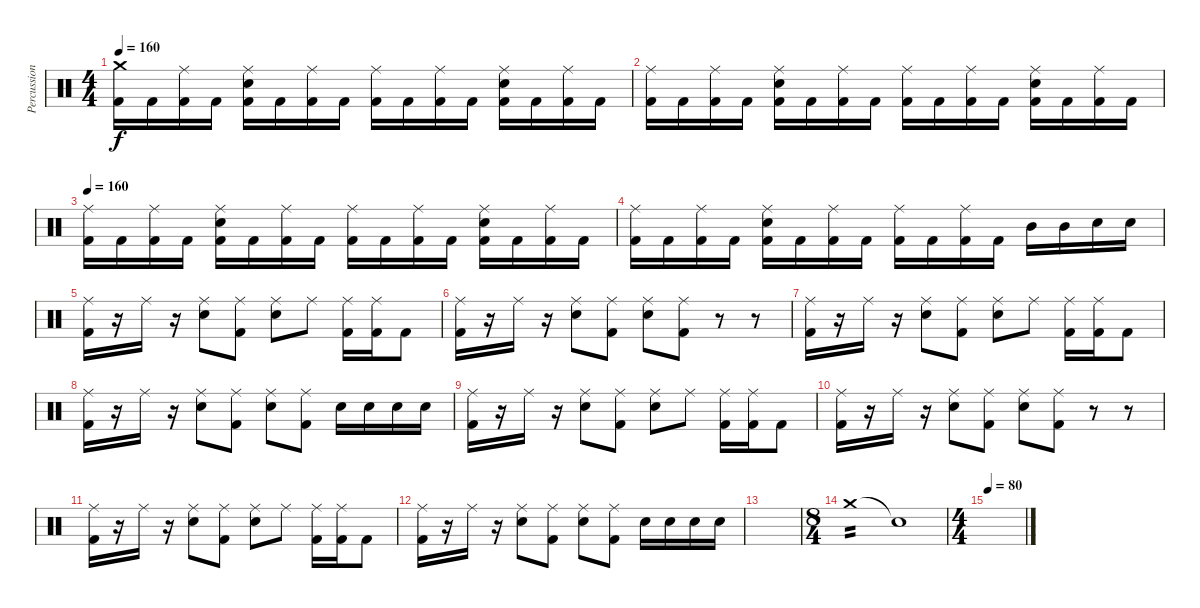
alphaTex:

\track ("Percussions" "Percussion") {instrument percussion}
\staff {score}
\articulation defaults
\ts (4 4)
\tempo 160
\clef neutral
\ks c
("Kick (hit) 2" "Crash medium (hit)").16{dy f} "Kick (hit) 2".16 ("Kick (hit) 2" "Ride (middle)").16 "Kick (hit) 2".16 ("Kick (hit) 2" "Electric Snare (hit)" "Ride (middle)").16 "Kick (hit) 2".16 ("Kick (hit) 2" "Ride (middle)").16 "Kick (hit) 2".16 ("Kick (hit) 2" "Ride (middle)").16 "Kick (hit) 2".16 ("Kick (hit) 2" "Ride (middle)").16 "Kick (hit) 2".16 ("Kick (hit) 2" "Electric Snare (hit)" "Ride (middle)").16 "Kick (hit) 2".16 ("Kick (hit) 2" "Ride (middle)").16 "Kick (hit) 2".16 |
("Kick (hit) 2" "Ride (middle)").16 "Kick (hit) 2".16 ("Kick (hit) 2" "Ride (middle)").16 "Kick (hit) 2".16 ("Kick (hit) 2" "Electric Snare (hit)" "Ride (middle)").16 "Kick (hit) 2".16 ("Kick (hit) 2" "Ride (middle)").16 "Kick (hit) 2".16 ("Kick (hit) 2" "Ride (middle)").16 "Kick (hit) 2".16 ("Kick (hit) 2" "Ride (middle)").16 "Kick (hit) 2".16 ("Kick (hit) 2" "Electric Snare (hit)" "Ride (middle)").16 "Kick (hit) 2".16 ("Kick (hit) 2" "Ride (middle)").16 "Kick (hit) 2".16 |
\tempo 160
("Kick (hit) 2" "Ride (middle)").16 "Kick (hit) 2".16 ("Kick (hit) 2" "Ride (middle)").16 "Kick (hit) 2".16 ("Kick (hit) 2" "Electric Snare (hit)" "Ride (middle)").16 "Kick (hit) 2".16 ("Kick (hit) 2" "Ride (middle)").16 "Kick (hit) 2".16 ("Kick (hit) 2" "Ride (middle)").16 "Kick (hit) 2".16 ("Kick (hit) 2" "Ride (middle)").16 "Kick (hit) 2".16 ("Kick (hit) 2" "Electric Snare (hit)" "Ride (middle)").16 "Kick (hit) 2".16 ("Kick (hit) 2" "Ride (middle)").16 "Kick (hit) 2".16 |
("Kick (hit) 2" "Ride (middle)").16 "Kick (hit) 2".16 ("Kick (hit) 2" "Ride (middle)").16 "Kick (hit) 2".16 ("Kick (hit) 2" "Electric Snare (hit)" "Ride (middle)").16 "Kick (hit) 2".16 ("Kick (hit) 2" "Ride (middle)").16 "Kick (hit) 2".16 ("Kick (hit) 2" "Ride (middle)").16 "Kick (hit) 2".16 ("Kick (hit) 2" "Ride (middle)").16 "Kick (hit) 2".16 "Mid Tom (hit)".16 "Mid Tom (hit)".16 "Electric Snare (hit)".16 "Snare (hit) 2".16 |
("Kick (hit) 2" "Ride (middle)").16 r.16 "Ride (middle)".16 r.16 ("Electric Snare (hit)" "Ride (middle)").8 ("Kick (hit) 2" "Ride (middle)").8 ("Electric Snare (hit)" "Ride (middle)").8 "Ride (middle)".8 ("Kick (hit) 2" "Ride (middle)").16 ("Kick (hit) 2" "Ride (middle)").16 "Kick (hit) 2".8 |
("Kick (hit) 2" "Ride (middle)").16 r.16 "Ride (middle)".16 r.16 ("Electric Snare (hit)" "Ride (middle)").8 ("Kick (hit) 2" "Ride (middle)").8 ("Electric Snare (hit)" "Ride (middle)").8 ("Kick (hit) 2" "Ride (middle)").8 r.8 r.8 |
("Kick (hit) 2" "Ride (middle)").16 r.16 "Ride (middle)".16 r.16 ("Electric Snare (hit)" "Ride (middle)").8 ("Kick (hit) 2" "Ride (middle)").8 ("Electric Snare (hit)" "Ride (middle)").8 "Ride (middle)".8 ("Kick (hit) 2" "Ride (middle)").16 ("Kick (hit) 2" "Ride (middle)").16 "Kick (hit) 2".8 |
("Kick (hit) 2" "Ride (middle)").16 r.16 "Ride (middle)".16 r.16 ("Electric Snare (hit)" "Ride (middle)").8 ("Kick (hit) 2" "Ride (middle)").8 ("Electric Snare (hit)" "Ride (middle)").8 ("Kick (hit) 2" "Ride (middle)").8 "Electric Snare (hit)".16 "Electric Snare (hit)".16 "Snare (hit) 2".16 "Snare (hit) 2".16 |
("Kick (hit) 2" "Ride (middle)").16 r.16 "Ride (middle)".16 r.16 ("Electric Snare (hit)" "Ride (middle)").8 ("Kick (hit) 2" "Ride (middle)").8 ("Electric Snare (hit)" "Ride (middle)").8 "Ride (middle)".8 ("Kick (hit) 2" "Ride (middle)").16 ("Kick (hit) 2" "Ride (middle)").16 "Kick (hit) 2".8 |
("Kick (hit) 2" "Ride (middle)").16 r.16 "Ride (middle)".16 r.16 ("Electric Snare (hit)" "Ride (middle)").8 ("Kick (hit) 2" "Ride (middle)").8 ("Electric Snare (hit)" "Ride (middle)").8 ("Kick (hit) 2" "Ride (middle)").8 r.8 r.8 |
("Kick (hit) 2" "Ride (middle)").16 r.16 "Ride (middle)".16 r.16 ("Electric Snare (hit)" "Ride (middle)").8 ("Kick (hit) 2" "Ride (middle)").8 ("Electric Snare (hit)" "Ride (middle)").8 "Ride (middle)".8 ("Kick (hit) 2" "Ride (middle)").16 ("Kick (hit) 2" "Ride (middle)").16 "Kick (hit) 2".8 |
("Kick (hit) 2" "Ride (middle)").16 r.16 "Ride (middle)".16 r.16 ("Electric Snare (hit)" "Ride (middle)").8 ("Kick (hit) 2" "Ride (middle)").8 ("Electric Snare (hit)" "Ride (middle)").8 ("Kick (hit) 2" "Ride (middle)").8 "Electric Snare (hit)".16 "Electric Snare (hit)".16 "Snare (hit) 2".16 "Snare (hit) 2".16 |
|
\ts (8 4)
"Crash medium (hit)".1{tp 2} "Snare (hit)"{t}.1 |
\ts (4 4)
\tempo 80
